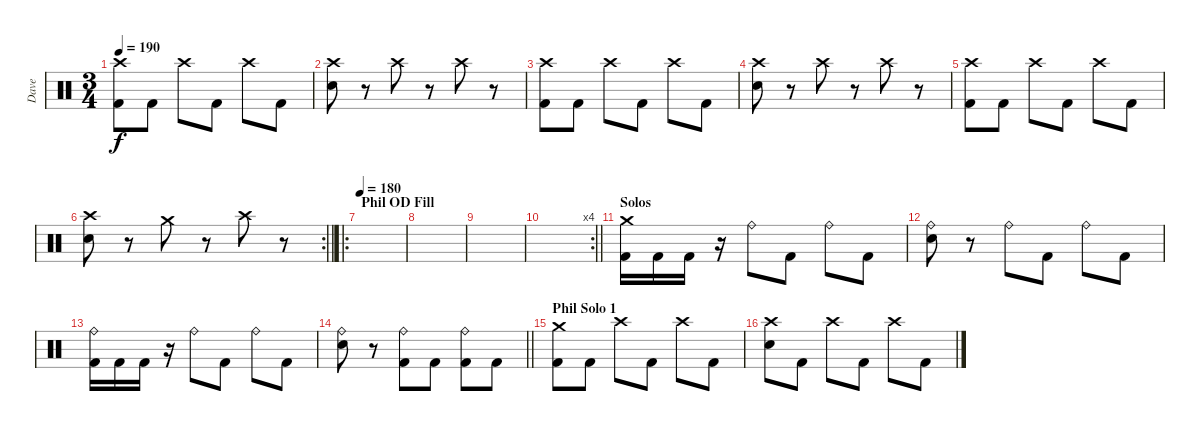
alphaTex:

\track ("Dave" "Dave") {instrument percussion}
\staff {score}
\articulation defaults
\ts (3 4)
\tempo 190
\clef neutral
\ks c
("Kick (hit) 2" "Crash high (hit)").8{dy f} "Kick (hit) 2".8 "Crash high (hit)".8 "Kick (hit) 2".8 "Crash high (hit)".8 "Kick (hit) 2".8 |
("Electric Snare (hit)" "Crash high (hit)").8 r.8 "Crash high (hit)".8 r.8 "Crash high (hit)".8 r.8 |
("Kick (hit) 2" "Crash high (hit)").8 "Kick (hit) 2".8 "Crash high (hit)".8 "Kick (hit) 2".8 "Crash high (hit)".8 "Kick (hit) 2".8 |
("Electric Snare (hit)" "Crash high (hit)").8 r.8 "Crash high (hit)".8 r.8 "Crash high (hit)".8 r.8 |
("Kick (hit) 2" "Crash high (hit)").8 "Kick (hit) 2".8 "Crash high (hit)".8 "Kick (hit) 2".8 "Crash high (hit)".8 "Kick (hit) 2".8 |
\rc 2
\barLineRight lightlight
("Electric Snare (hit)" "Crash high (hit)").8 r.8 "Crash medium (hit)".8 r.8 "Crash high (hit)".8 r.8 |
\ro
\section ("" "Phil OD Fill")
\tempo 180
|
|
|
\rc 4
\barLineRight lightlight
|
\section ("" "Solos")
("Kick (hit) 2" "Crash medium (hit)").16 "Kick (hit) 2".16 "Kick (hit) 2".16 r.16 "Ride (bell)".8 "Kick (hit) 2".8 "Ride (bell)".8 "Kick (hit) 2".8 |
("Electric Snare (hit)" "Ride (bell)").8 r.8 "Ride (bell)".8 "Kick (hit) 2".8 "Ride (bell)".8 "Kick (hit) 2".8 |
("Kick (hit) 2" "Ride (bell)").16 "Kick (hit) 2".16 "Kick (hit) 2".16 r.16 "Ride (bell)".8 "Kick (hit) 2".8 "Ride (bell)".8 "Kick (hit) 2".8 |
\barLineRight lightlight
("Electric Snare (hit)" "Ride (bell)").8 r.8 ("Kick (hit) 2" "Ride (bell)").8 "Kick (hit) 2".8 ("Kick (hit) 2" "Ride (bell)").8 "Kick (hit) 2".8 |
\section ("" "Phil Solo 1")
("Kick (hit) 2" "Crash medium (hit)").8 "Kick (hit) 2".8 "Crash high (hit)".8 "Kick (hit) 2".8 "Crash high (hit)".8 "Kick (hit) 2".8 |
("Electric Snare (hit)" "Crash high (hit)").8 "Kick (hit) 2".8 "Crash high (hit)".8 "Kick (hit) 2".8 "Crash high (hit)".8 "Kick (hit) 2".8
